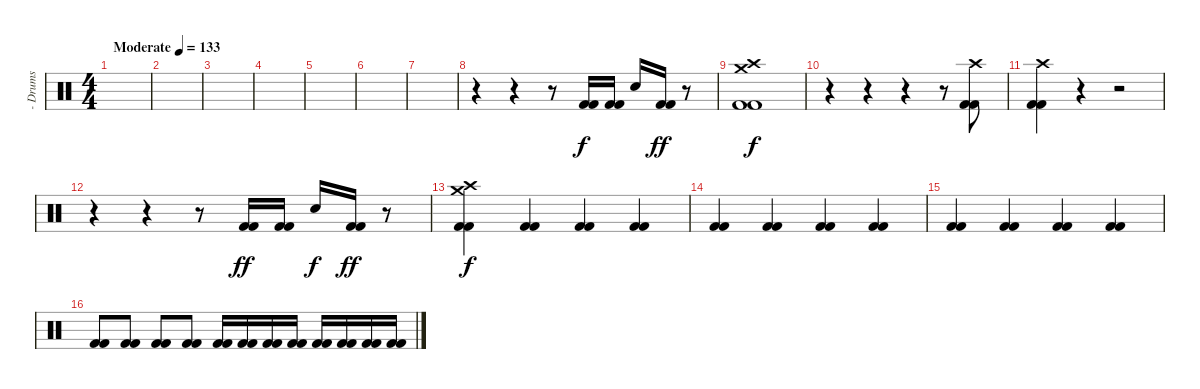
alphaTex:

\track (" - Drums" " - Drums") {instrument percussion}
\staff {score}
\articulation defaults
\ts (4 4)
\tempo (133 "Moderate")
\clef neutral
\ks c
|
|
|
|
|
|
|
r.4 r.4 r.8 ("Kick (hit) 2" "Kick (hit) 2").16 ("Kick (hit) 2" "Kick (hit) 2").16 "Electric Snare (hit)".16{dy f} ("Kick (hit) 2" "Kick (hit) 2").16{dy ff} r.8 |
("Crash high (hit)" "Crash medium (hit)" "Kick (hit) 2" "Kick (hit) 2").1{dy f} |
r.4 r.4 r.4 r.8 ("Crash high (hit)" "Kick (hit) 2" "Kick (hit) 2").8 |
("Crash high (hit)" "Kick (hit) 2" "Kick (hit) 2").4 r.4 r.2 |
r.4 r.4 r.8 ("Kick (hit) 2" "Kick (hit) 2").16{dy ff} ("Kick (hit) 2" "Kick (hit) 2").16 "Electric Snare (hit)".16{dy f} ("Kick (hit) 2" "Kick (hit) 2").16{dy ff} r.8 |
("Crash high (hit)" "Crash medium (hit)" "Kick (hit) 2" "Kick (hit) 2").4{dy f} ("Kick (hit) 2" "Kick (hit) 2").4 ("Kick (hit) 2" "Kick (hit) 2").4 ("Kick (hit) 2" "Kick (hit) 2").4 |
("Kick (hit) 2" "Kick (hit) 2").4 ("Kick (hit) 2" "Kick (hit) 2").4 ("Kick (hit) 2" "Kick (hit) 2").4 ("Kick (hit) 2" "Kick (hit) 2").4 |
("Kick (hit) 2" "Kick (hit) 2").4 ("Kick (hit) 2" "Kick (hit) 2").4 ("Kick (hit) 2" "Kick (hit) 2").4 ("Kick (hit) 2" "Kick (hit) 2").4 |
("Kick (hit) 2" "Kick (hit) 2").8 ("Kick (hit) 2" "Kick (hit) 2").8 ("Kick (hit) 2" "Kick (hit) 2").8 ("Kick (hit) 2" "Kick (hit) 2").8 ("Kick (hit) 2" "Kick (hit) 2").16 ("Kick (hit) 2" "Kick (hit) 2").16 ("Kick (hit) 2" "Kick (hit) 2").16 ("Kick (hit) 2" "Kick (hit) 2").16 ("Kick (hit) 2" "Kick (hit) 2").16 ("Kick (hit) 2" "Kick (hit) 2").16 ("Kick (hit) 2" "Kick (hit) 2").16 ("Kick (hit) 2" "Kick (hit) 2").16
